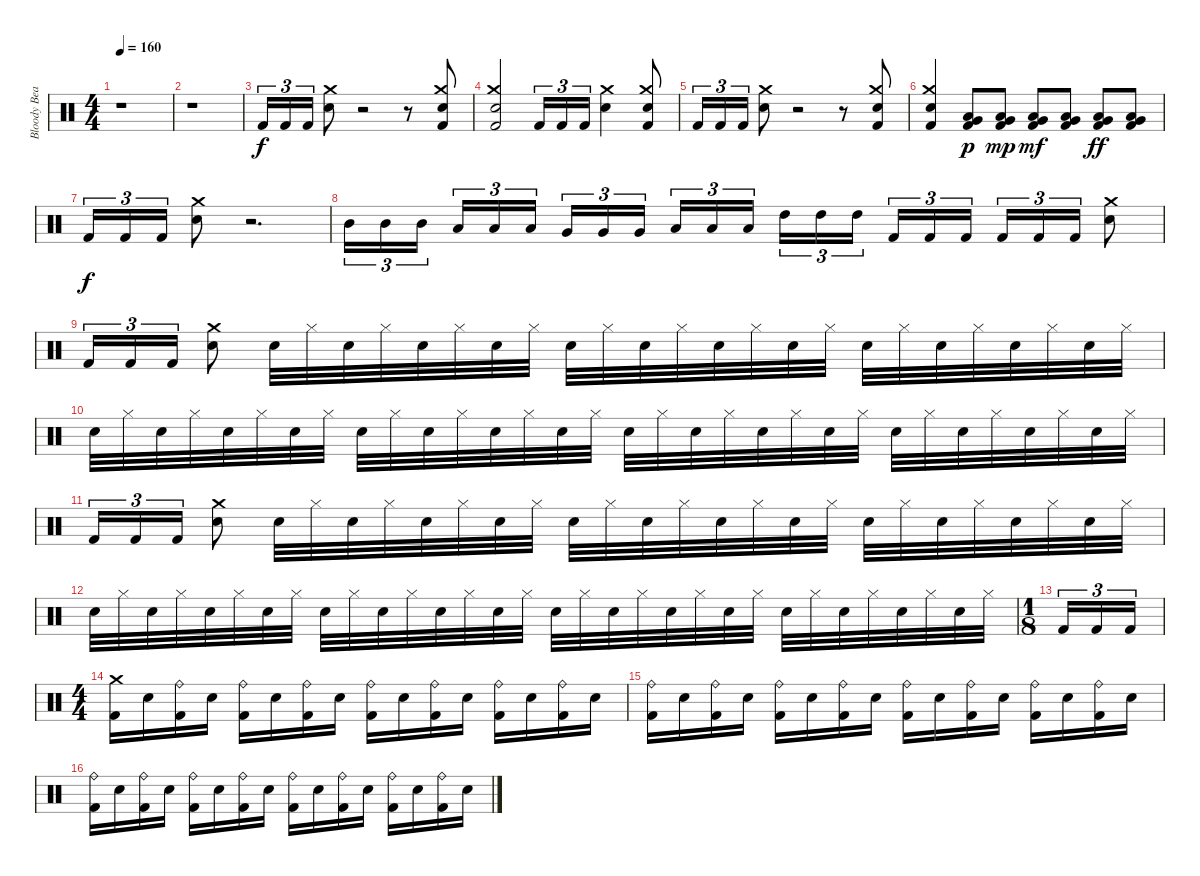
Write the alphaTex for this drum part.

\track ("Bloody Beater" "Bloody Bea") {instrument percussion}
\staff {score}
\articulation defaults
\ts (4 4)
\tempo 160
\clef neutral
\ks c
r.1{dy f} |
r.1 |
"Kick (hit) 2".16{tu (3 2)} "Kick (hit) 2".16{tu (3 2)} "Kick (hit) 2".16{tu (3 2)} ("Crash medium (hit)" "Snare (hit) 2").8 r.2 r.8 ("Crash medium (hit)" "Snare (hit) 2" "Kick (hit) 2").8 |
("Crash medium (hit)" "Snare (hit) 2" "Kick (hit) 2").2 "Kick (hit) 2".16{tu (3 2)} "Kick (hit) 2".16{tu (3 2)} "Kick (hit) 2".16{tu (3 2)} ("Crash medium (hit)" "Snare (hit) 2").4 ("Crash medium (hit)" "Snare (hit) 2" "Kick (hit) 2").8 |
"Kick (hit) 2".16{tu (3 2)} "Kick (hit) 2".16{tu (3 2)} "Kick (hit) 2".16{tu (3 2)} ("Crash medium (hit)" "Snare (hit) 2").8 r.2 r.8 ("Crash medium (hit)" "Snare (hit) 2" "Kick (hit) 2").8 |
("Crash medium (hit)" "Snare (hit) 2" "Kick (hit) 2").4 ("Very Low Tom (hit)" "Low Tom (hit)" "Kick (hit) 2").8{dy p} ("Very Low Tom (hit)" "Low Tom (hit)" "Kick (hit) 2").8{dy mp} ("Very Low Tom (hit)" "Low Tom (hit)" "Kick (hit) 2").8{dy mf} ("Very Low Tom (hit)" "Low Tom (hit)" "Kick (hit) 2").8 ("Very Low Tom (hit)" "Low Tom (hit)" "Kick (hit) 2").8{dy ff} ("Very Low Tom (hit)" "Low Tom (hit)" "Kick (hit) 2").8 |
"Kick (hit) 2".16{tu (3 2) dy f} "Kick (hit) 2".16{tu (3 2)} "Kick (hit) 2".16{tu (3 2)} ("Crash medium (hit)" "Snare (hit) 2").8 r.2{d} |
"Mid Tom (hit)".16{tu (3 2)} "Mid Tom (hit)".16{tu (3 2)} "Mid Tom (hit)".16{tu (3 2)} "Low Tom (hit)".16{tu (3 2)} "Low Tom (hit)".16{tu (3 2)} "Low Tom (hit)".16{tu (3 2)} "Very Low Tom (hit)".16{tu (3 2)} "Very Low Tom (hit)".16{tu (3 2)} "Very Low Tom (hit)".16{tu (3 2)} "Low Tom (hit)".16{tu (3 2)} "Low Tom (hit)".16{tu (3 2)} "Low Tom (hit)".16{tu (3 2)} "High Tom (hit)".16{tu (3 2)} "High Tom (hit)".16{tu (3 2)} "High Tom (hit)".16{tu (3 2)} "Kick (hit) 2".16{tu (3 2)} "Kick (hit) 2".16{tu (3 2)} "Kick (hit) 2".16{tu (3 2)} "Kick (hit) 2".16{tu (3 2)} "Kick (hit) 2".16{tu (3 2)} "Kick (hit) 2".16{tu (3 2)} ("Crash medium (hit)" "Snare (hit) 2").8 |
"Kick (hit) 2".16{tu (3 2)} "Kick (hit) 2".16{tu (3 2)} "Kick (hit) 2".16{tu (3 2)} ("Crash medium (hit)" "Snare (hit) 2").8 "Snare (hit) 2".32 "Hi-Hat (closed)".32 "Snare (hit) 2".32 "Hi-Hat (closed)".32 "Snare (hit) 2".32 "Hi-Hat (closed)".32 "Snare (hit) 2".32 "Hi-Hat (closed)".32 "Snare (hit) 2".32 "Hi-Hat (closed)".32 "Snare (hit) 2".32 "Hi-Hat (closed)".32 "Snare (hit) 2".32 "Hi-Hat (closed)".32 "Snare (hit) 2".32 "Hi-Hat (closed)".32 "Snare (hit) 2".32 "Hi-Hat (closed)".32 "Snare (hit) 2".32 "Hi-Hat (closed)".32 "Snare (hit) 2".32 "Hi-Hat (closed)".32 "Snare (hit) 2".32 "Hi-Hat (closed)".32 |
"Snare (hit) 2".32 "Hi-Hat (closed)".32 "Snare (hit) 2".32 "Hi-Hat (closed)".32 "Snare (hit) 2".32 "Hi-Hat (closed)".32 "Snare (hit) 2".32 "Hi-Hat (closed)".32 "Snare (hit) 2".32 "Hi-Hat (closed)".32 "Snare (hit) 2".32 "Hi-Hat (closed)".32 "Snare (hit) 2".32 "Hi-Hat (closed)".32 "Snare (hit) 2".32 "Hi-Hat (closed)".32 "Snare (hit) 2".32 "Hi-Hat (closed)".32 "Snare (hit) 2".32 "Hi-Hat (closed)".32 "Snare (hit) 2".32 "Hi-Hat (closed)".32 "Snare (hit) 2".32 "Hi-Hat (closed)".32 "Snare (hit) 2".32 "Hi-Hat (closed)".32 "Snare (hit) 2".32 "Hi-Hat (closed)".32 "Snare (hit) 2".32 "Hi-Hat (closed)".32 "Snare (hit) 2".32 "Hi-Hat (closed)".32 |
"Kick (hit) 2".16{tu (3 2)} "Kick (hit) 2".16{tu (3 2)} "Kick (hit) 2".16{tu (3 2)} ("Crash medium (hit)" "Snare (hit) 2").8 "Snare (hit) 2".32 "Hi-Hat (closed)".32 "Snare (hit) 2".32 "Hi-Hat (closed)".32 "Snare (hit) 2".32 "Hi-Hat (closed)".32 "Snare (hit) 2".32 "Hi-Hat (closed)".32 "Snare (hit) 2".32 "Hi-Hat (closed)".32 "Snare (hit) 2".32 "Hi-Hat (closed)".32 "Snare (hit) 2".32 "Hi-Hat (closed)".32 "Snare (hit) 2".32 "Hi-Hat (closed)".32 "Snare (hit) 2".32 "Hi-Hat (closed)".32 "Snare (hit) 2".32 "Hi-Hat (closed)".32 "Snare (hit) 2".32 "Hi-Hat (closed)".32 "Snare (hit) 2".32 "Hi-Hat (closed)".32 |
"Snare (hit) 2".32 "Hi-Hat (closed)".32 "Snare (hit) 2".32 "Hi-Hat (closed)".32 "Snare (hit) 2".32 "Hi-Hat (closed)".32 "Snare (hit) 2".32 "Hi-Hat (closed)".32 "Snare (hit) 2".32 "Hi-Hat (closed)".32 "Snare (hit) 2".32 "Hi-Hat (closed)".32 "Snare (hit) 2".32 "Hi-Hat (closed)".32 "Snare (hit) 2".32 "Hi-Hat (closed)".32 "Snare (hit) 2".32 "Hi-Hat (closed)".32 "Snare (hit) 2".32 "Hi-Hat (closed)".32 "Snare (hit) 2".32 "Hi-Hat (closed)".32 "Snare (hit) 2".32 "Hi-Hat (closed)".32 "Snare (hit) 2".32 "Hi-Hat (closed)".32 "Snare (hit) 2".32 "Hi-Hat (closed)".32 "Snare (hit) 2".32 "Hi-Hat (closed)".32 "Snare (hit) 2".32 "Hi-Hat (closed)".32 |
\ts (1 8)
"Kick (hit) 2".16{tu (3 2)} "Kick (hit) 2".16{tu (3 2)} "Kick (hit) 2".16{tu (3 2)} |
\ts (4 4)
("Crash medium (hit)" "Kick (hit) 2").16 "Snare (hit) 2".16 ("Ride (bell)" "Kick (hit) 2").16 "Snare (hit) 2".16 ("Ride (bell)" "Kick (hit) 2").16 "Snare (hit) 2".16 ("Ride (bell)" "Kick (hit) 2").16 "Snare (hit) 2".16 ("Ride (bell)" "Kick (hit) 2").16 "Snare (hit) 2".16 ("Ride (bell)" "Kick (hit) 2").16 "Snare (hit) 2".16 ("Ride (bell)" "Kick (hit) 2").16 "Snare (hit) 2".16 ("Ride (bell)" "Kick (hit) 2").16 "Snare (hit) 2".16 |
("Ride (bell)" "Kick (hit) 2").16 "Snare (hit) 2".16 ("Ride (bell)" "Kick (hit) 2").16 "Snare (hit) 2".16 ("Ride (bell)" "Kick (hit) 2").16 "Snare (hit) 2".16 ("Ride (bell)" "Kick (hit) 2").16 "Snare (hit) 2".16 ("Ride (bell)" "Kick (hit) 2").16 "Snare (hit) 2".16 ("Ride (bell)" "Kick (hit) 2").16 "Snare (hit) 2".16 ("Ride (bell)" "Kick (hit) 2").16 "Snare (hit) 2".16 ("Ride (bell)" "Kick (hit) 2").16 "Snare (hit) 2".16 |
("Ride (bell)" "Kick (hit) 2").16 "Snare (hit) 2".16 ("Ride (bell)" "Kick (hit) 2").16 "Snare (hit) 2".16 ("Ride (bell)" "Kick (hit) 2").16 "Snare (hit) 2".16 ("Ride (bell)" "Kick (hit) 2").16 "Snare (hit) 2".16 ("Ride (bell)" "Kick (hit) 2").16 "Snare (hit) 2".16 ("Ride (bell)" "Kick (hit) 2").16 "Snare (hit) 2".16 ("Ride (bell)" "Kick (hit) 2").16 "Snare (hit) 2".16 ("Ride (bell)" "Kick (hit) 2").16 "Snare (hit) 2".16
